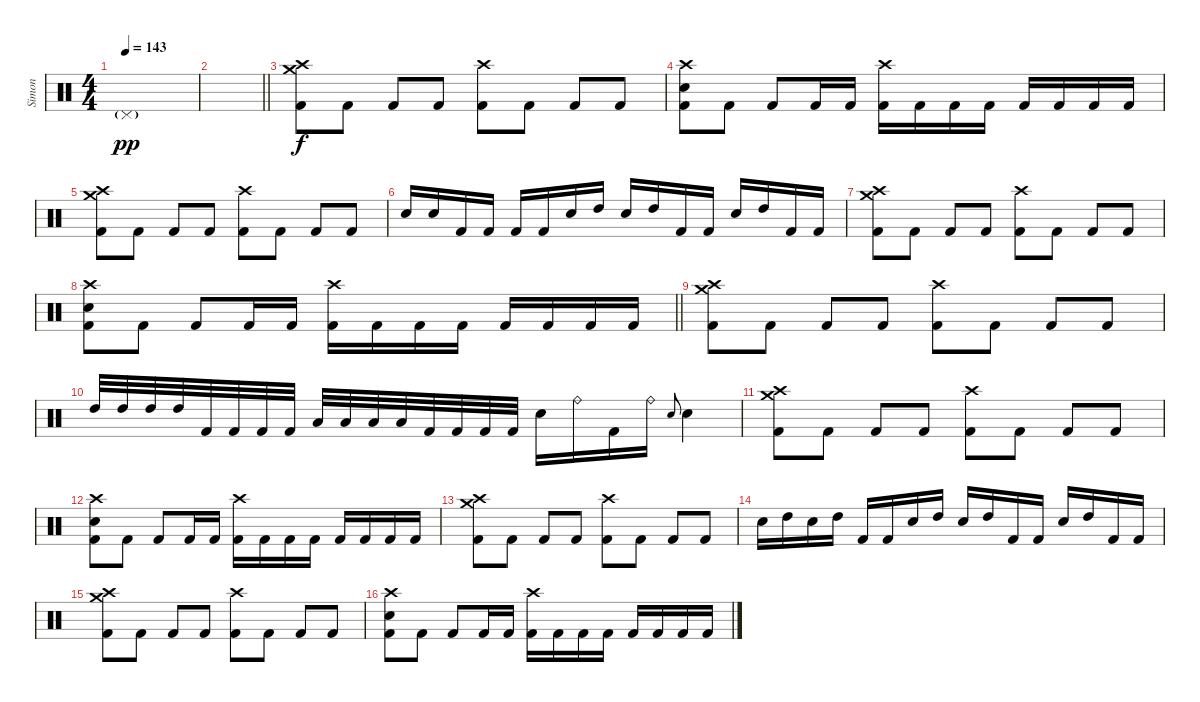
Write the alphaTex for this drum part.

\track ("Simon" "Simon") {instrument percussion}
\staff {score}
\articulation defaults
\ts (4 4)
\tempo 143
\clef neutral
\ks c "Pedal Hi-Hat (hit)"{g}.1{dy pp}
|
\barLineRight lightlight
|
\section ("" "")
("Crash high (hit)" "Crash medium (hit)" "Kick (hit) 2").8{dy f} "Kick (hit) 2".8 "Kick (hit) 2".8 "Kick (hit) 2".8 ("Crash high (hit)" "Kick (hit) 2").8 "Kick (hit) 2".8 "Kick (hit) 2".8 "Kick (hit) 2".8 |
("Crash high (hit)" "Electric Snare (hit)" "Kick (hit) 2").8 "Kick (hit) 2".8 "Kick (hit) 2".8 "Kick (hit) 2".16 "Kick (hit) 2".16 ("Crash high (hit)" "Kick (hit) 2").16 "Kick (hit) 2".16 "Kick (hit) 2".16 "Kick (hit) 2".16 "Kick (hit) 2".16 "Kick (hit) 2".16 "Kick (hit) 2".16 "Kick (hit) 2".16 |
("Crash high (hit)" "Crash medium (hit)" "Kick (hit) 2").8 "Kick (hit) 2".8 "Kick (hit) 2".8 "Kick (hit) 2".8 ("Crash high (hit)" "Kick (hit) 2").8 "Kick (hit) 2".8 "Kick (hit) 2".8 "Kick (hit) 2".8 |
"Electric Snare (hit)".16 "Electric Snare (hit)".16 "Kick (hit) 2".16 "Kick (hit) 2".16 "Kick (hit) 2".16 "Kick (hit) 2".16 "Electric Snare (hit)".16 "High Tom (hit)".16 "Electric Snare (hit)".16 "High Tom (hit)".16 "Kick (hit) 2".16 "Kick (hit) 2".16 "Electric Snare (hit)".16 "High Tom (hit)".16 "Kick (hit) 2".16 "Kick (hit) 2".16 |
("Crash high (hit)" "Crash medium (hit)" "Kick (hit) 2").8 "Kick (hit) 2".8 "Kick (hit) 2".8 "Kick (hit) 2".8 ("Crash high (hit)" "Kick (hit) 2").8 "Kick (hit) 2".8 "Kick (hit) 2".8 "Kick (hit) 2".8 |
\barLineRight lightlight
("Crash high (hit)" "Electric Snare (hit)" "Kick (hit) 2").8 "Kick (hit) 2".8 "Kick (hit) 2".8 "Kick (hit) 2".16 "Kick (hit) 2".16 ("Crash high (hit)" "Kick (hit) 2").16 "Kick (hit) 2".16 "Kick (hit) 2".16 "Kick (hit) 2".16 "Kick (hit) 2".16 "Kick (hit) 2".16 "Kick (hit) 2".16 "Kick (hit) 2".16 |
("Crash high (hit)" "Crash medium (hit)" "Kick (hit) 2").8 "Kick (hit) 2".8 "Kick (hit) 2".8 "Kick (hit) 2".8 ("Crash high (hit)" "Kick (hit) 2").8 "Kick (hit) 2".8 "Kick (hit) 2".8 "Kick (hit) 2".8 |
"High Tom (hit)".32 "High Tom (hit)".32 "High Tom (hit)".32 "High Tom (hit)".32 "Kick (hit) 2".32 "Kick (hit) 2".32 "Kick (hit) 2".32 "Kick (hit) 2".32 "Low Tom (hit)".32 "Low Tom (hit)".32 "Low Tom (hit)".32 "Low Tom (hit)".32 "Kick (hit) 2".32 "Kick (hit) 2".32 "Kick (hit) 2".32 "Kick (hit) 2".32 "Electric Snare (hit)".16 "Ride (bell)".16 "Kick (hit) 2".16 "Ride (bell)".16 "Electric Snare (hit)".8{gr onbeat} "Electric Snare (hit)".4 |
("Crash high (hit)" "Crash medium (hit)" "Kick (hit) 2").8 "Kick (hit) 2".8 "Kick (hit) 2".8 "Kick (hit) 2".8 ("Crash high (hit)" "Kick (hit) 2").8 "Kick (hit) 2".8 "Kick (hit) 2".8 "Kick (hit) 2".8 |
("Crash high (hit)" "Electric Snare (hit)" "Kick (hit) 2").8 "Kick (hit) 2".8 "Kick (hit) 2".8 "Kick (hit) 2".16 "Kick (hit) 2".16 ("Crash high (hit)" "Kick (hit) 2").16 "Kick (hit) 2".16 "Kick (hit) 2".16 "Kick (hit) 2".16 "Kick (hit) 2".16 "Kick (hit) 2".16 "Kick (hit) 2".16 "Kick (hit) 2".16 |
("Crash high (hit)" "Crash medium (hit)" "Kick (hit) 2").8 "Kick (hit) 2".8 "Kick (hit) 2".8 "Kick (hit) 2".8 ("Crash high (hit)" "Kick (hit) 2").8 "Kick (hit) 2".8 "Kick (hit) 2".8 "Kick (hit) 2".8 |
"Electric Snare (hit)".16 "High Tom (hit)".16 "Electric Snare (hit)".16 "High Tom (hit)".16 "Kick (hit) 2".16 "Kick (hit) 2".16 "Electric Snare (hit)".16 "High Tom (hit)".16 "Electric Snare (hit)".16 "High Tom (hit)".16 "Kick (hit) 2".16 "Kick (hit) 2".16 "Electric Snare (hit)".16 "High Tom (hit)".16 "Kick (hit) 2".16 "Kick (hit) 2".16 |
("Crash high (hit)" "Crash medium (hit)" "Kick (hit) 2").8 "Kick (hit) 2".8 "Kick (hit) 2".8 "Kick (hit) 2".8 ("Crash high (hit)" "Kick (hit) 2").8 "Kick (hit) 2".8 "Kick (hit) 2".8 "Kick (hit) 2".8 |
("Crash high (hit)" "Electric Snare (hit)" "Kick (hit) 2").8 "Kick (hit) 2".8 "Kick (hit) 2".8 "Kick (hit) 2".16 "Kick (hit) 2".16 ("Crash high (hit)" "Kick (hit) 2").16 "Kick (hit) 2".16 "Kick (hit) 2".16 "Kick (hit) 2".16 "Kick (hit) 2".16 "Kick (hit) 2".16 "Kick (hit) 2".16 "Kick (hit) 2".16
